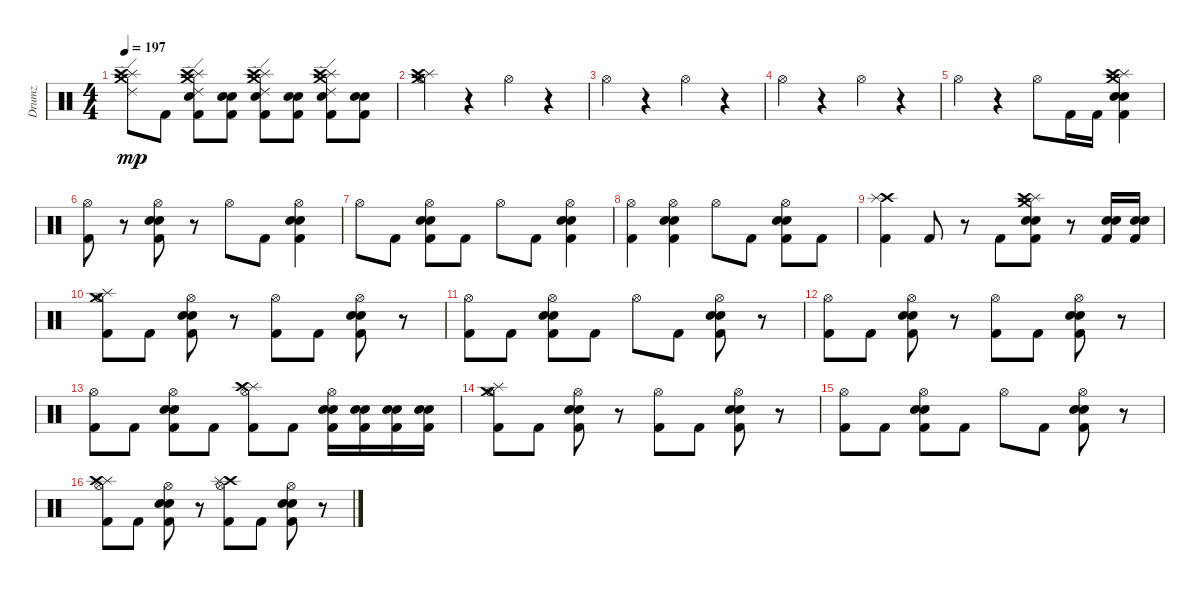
\track ("Drumz" "Drumz") {instrument percussion}
\staff {score}
\articulation defaults
\ts (4 4)
\tempo 197
\clef neutral
\ks c
("Splash (hit)" "Crash medium (hit)" "Ride (edge) 2" "Crash high (hit)").8{dy mp} "Kick (hit) 2".8 ("Ride (edge) 2" "Splash (hit)" "Crash medium (hit)" "Crash high (hit)" "Kick (hit) 2" "Snare (hit) 2").8 ("Snare (hit) 2" "Electric Snare (hit)" "Kick (hit) 2").8 ("Splash (hit)" "Crash medium (hit)" "Ride (edge) 2" "Crash high (hit)" "Kick (hit) 2" "Snare (hit) 2").8 ("Snare (hit) 2" "Electric Snare (hit)" "Kick (hit) 2").8 ("Splash (hit)" "Crash medium (hit)" "Ride (edge) 2" "Crash high (hit)" "Kick (hit) 2" "Snare (hit) 2").8 ("Snare (hit) 2" "Electric Snare (hit)" "Kick (hit) 2").8 |
("Splash (hit)" "Crash medium (hit)" "Crash high (hit)" "Hi-Hat (open)").4 r.4 "Hi-Hat (open)".4 r.4 |
"Hi-Hat (open)".4 r.4 "Hi-Hat (open)".4 r.4 |
"Hi-Hat (open)".4 r.4 "Hi-Hat (open)".4 r.4 |
"Hi-Hat (open)".4 r.4 "Hi-Hat (open)".8 "Kick (hit) 2".16 "Kick (hit) 2".16 ("Splash (hit)" "Crash medium (hit)" "Crash high (hit)" "Snare (hit) 2" "Electric Snare (hit)" "Kick (hit) 2").4 |
("Kick (hit) 2" "Hi-Hat (open)").8 r.8 ("Snare (hit) 2" "Electric Snare (hit)" "Hi-Hat (open)" "Kick (hit) 2").8 r.8 "Hi-Hat (open)".8 "Kick (hit) 2".8 ("Snare (hit) 2" "Electric Snare (hit)" "Kick (hit) 2" "Hi-Hat (open)").4 |
"Hi-Hat (open)".8 "Kick (hit) 2".8 ("Snare (hit) 2" "Electric Snare (hit)" "Kick (hit) 2" "Hi-Hat (open)").8 "Kick (hit) 2".8 "Hi-Hat (open)".8 "Kick (hit) 2".8 ("Snare (hit) 2" "Electric Snare (hit)" "Kick (hit) 2" "Hi-Hat (open)").4 |
("Kick (hit) 2" "Hi-Hat (open)").4 ("Snare (hit) 2" "Electric Snare (hit)" "Kick (hit) 2" "Hi-Hat (open)").4 "Hi-Hat (open)".8 "Kick (hit) 2".8 ("Snare (hit) 2" "Electric Snare (hit)" "Kick (hit) 2" "Hi-Hat (open)").8 "Kick (hit) 2".8 |
("Crash high (hit)" "Splash (hit)" "Kick (hit) 2").4 "Kick (hit) 2".8 r.8 "Kick (hit) 2".8 ("Kick (hit) 2" "Snare (hit) 2" "Electric Snare (hit)" "Crash medium (hit)" "Splash (hit)" "Crash high (hit)").8 r.8 ("Snare (hit) 2" "Kick (hit) 2" "Electric Snare (hit)").16 ("Snare (hit) 2" "Electric Snare (hit)" "Kick (hit) 2").16 |
("Splash (hit)" "Crash medium (hit)" "Kick (hit) 2" "Hi-Hat (open)").8 "Kick (hit) 2".8 ("Kick (hit) 2" "Snare (hit) 2" "Electric Snare (hit)" "Hi-Hat (open)").8 r.8 ("Kick (hit) 2" "Hi-Hat (open)").8 "Kick (hit) 2".8 ("Kick (hit) 2" "Snare (hit) 2" "Electric Snare (hit)" "Hi-Hat (open)").8 r.8 |
("Hi-Hat (open)" "Kick (hit) 2").8 "Kick (hit) 2".8 ("Hi-Hat (open)" "Snare (hit) 2" "Electric Snare (hit)" "Kick (hit) 2").8 "Kick (hit) 2".8 "Hi-Hat (open)".8 "Kick (hit) 2".8 ("Hi-Hat (open)" "Snare (hit) 2" "Electric Snare (hit)" "Kick (hit) 2").8 r.8 |
("Kick (hit) 2" "Hi-Hat (open)").8 "Kick (hit) 2".8 ("Kick (hit) 2" "Snare (hit) 2" "Electric Snare (hit)" "Hi-Hat (open)").8 r.8 ("Kick (hit) 2" "Hi-Hat (open)").8 "Kick (hit) 2".8 ("Kick (hit) 2" "Snare (hit) 2" "Electric Snare (hit)" "Hi-Hat (open)").8 r.8 |
("Hi-Hat (open)" "Kick (hit) 2").8 "Kick (hit) 2".8 ("Hi-Hat (open)" "Snare (hit) 2" "Electric Snare (hit)" "Kick (hit) 2").8 "Kick (hit) 2".8 ("Kick (hit) 2" "Splash (hit)" "Crash high (hit)" "Hi-Hat (open)").8 "Kick (hit) 2".8 ("Kick (hit) 2" "Snare (hit) 2" "Electric Snare (hit)" "Hi-Hat (open)").16 ("Electric Snare (hit)" "Snare (hit) 2" "Kick (hit) 2").16 ("Snare (hit) 2" "Electric Snare (hit)" "Kick (hit) 2").16 ("Snare (hit) 2" "Electric Snare (hit)" "Kick (hit) 2").16 |
("Splash (hit)" "Crash medium (hit)" "Kick (hit) 2" "Hi-Hat (open)").8 "Kick (hit) 2".8 ("Kick (hit) 2" "Snare (hit) 2" "Electric Snare (hit)" "Hi-Hat (open)").8 r.8 ("Kick (hit) 2" "Hi-Hat (open)").8 "Kick (hit) 2".8 ("Kick (hit) 2" "Snare (hit) 2" "Electric Snare (hit)" "Hi-Hat (open)").8 r.8 |
("Hi-Hat (open)" "Kick (hit) 2").8 "Kick (hit) 2".8 ("Hi-Hat (open)" "Snare (hit) 2" "Electric Snare (hit)" "Kick (hit) 2").8 "Kick (hit) 2".8 "Hi-Hat (open)".8 "Kick (hit) 2".8 ("Hi-Hat (open)" "Snare (hit) 2" "Electric Snare (hit)" "Kick (hit) 2").8 r.8 |
("Splash (hit)" "Crash high (hit)" "Kick (hit) 2" "Hi-Hat (open)").8 "Kick (hit) 2".8 ("Kick (hit) 2" "Snare (hit) 2" "Electric Snare (hit)" "Hi-Hat (open)").8 r.8 ("Crash high (hit)" "Splash (hit)" "Kick (hit) 2" "Hi-Hat (open)").8 "Kick (hit) 2".8 ("Kick (hit) 2" "Snare (hit) 2" "Electric Snare (hit)" "Hi-Hat (open)").8 r.8
